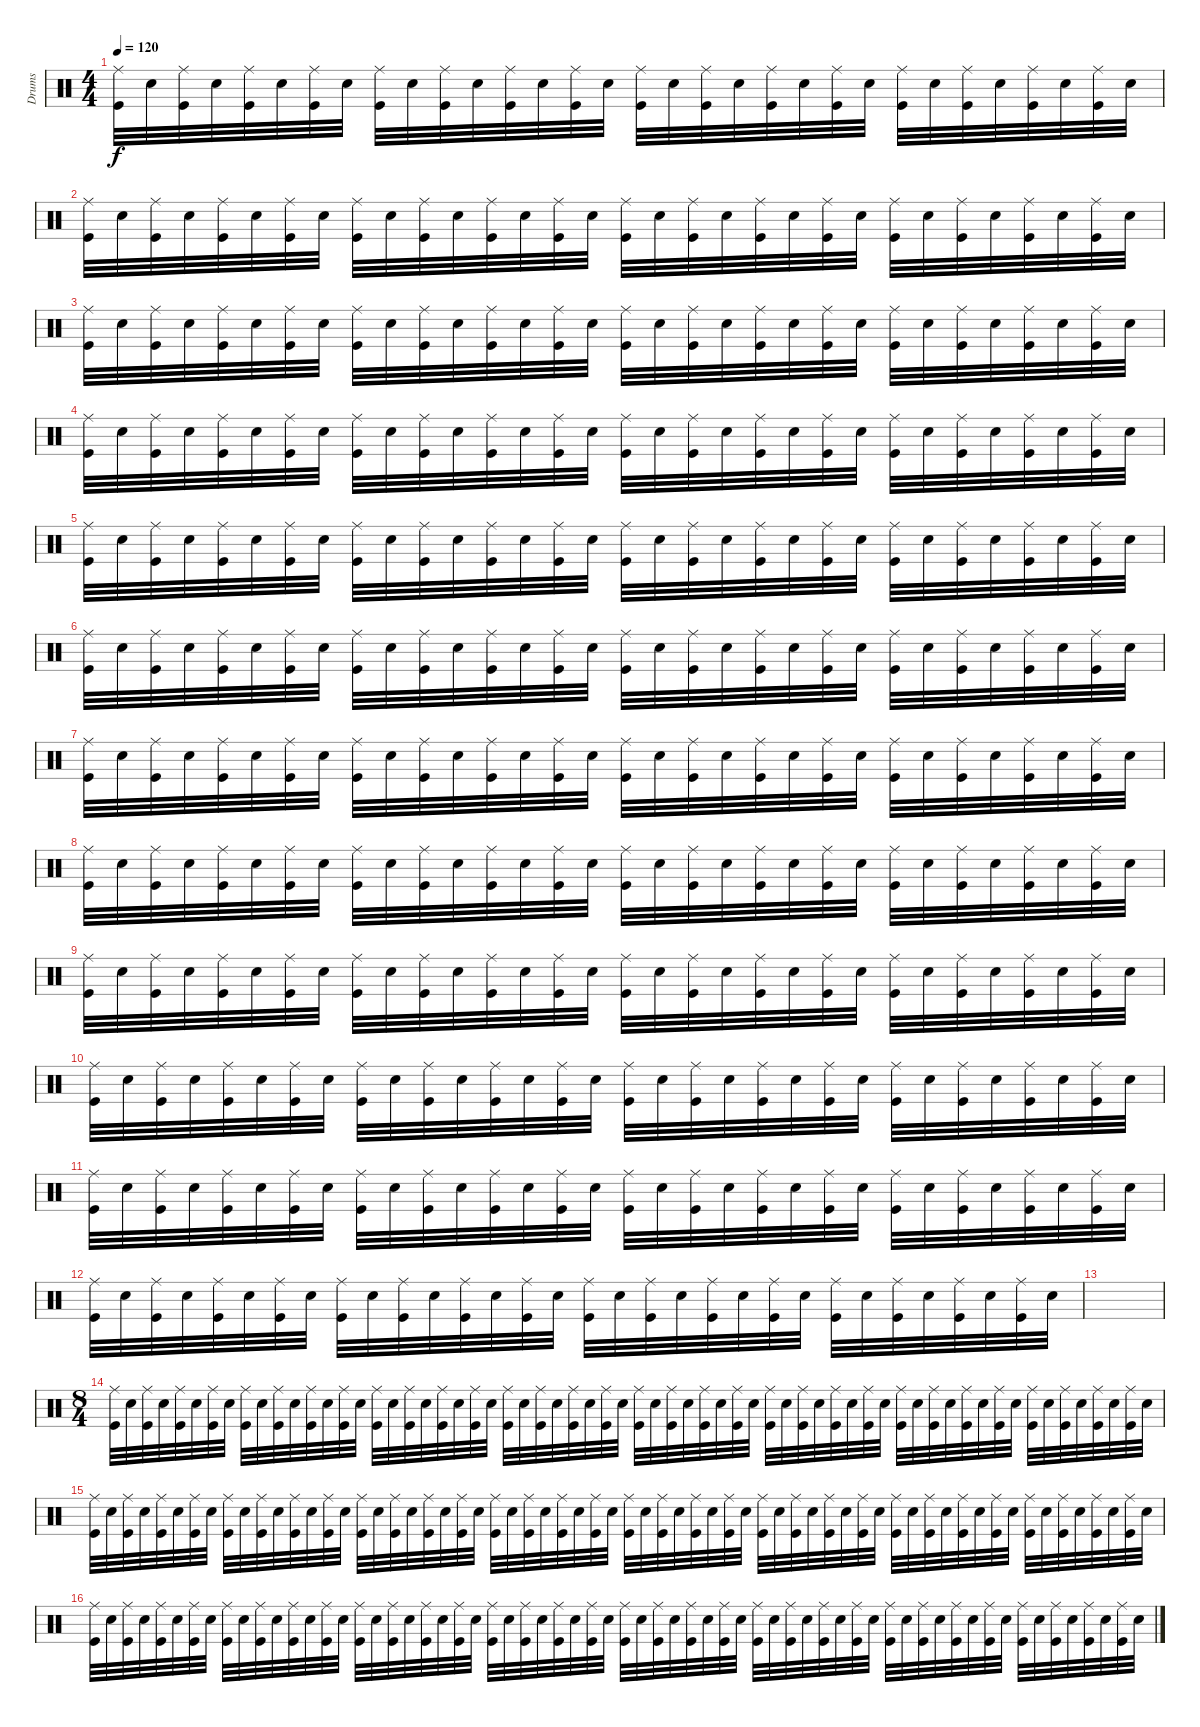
\track ("Drums" "Drums") {instrument percussion}
\staff {score}
\articulation defaults
\ts (4 4)
\tempo 120
\clef neutral
\ks c
("Ride (middle)" "Kick (hit)").32{dy f} "Electric Snare (hit)".32 ("Ride (middle)" "Kick (hit)").32 "Electric Snare (hit)".32 ("Ride (middle)" "Kick (hit)").32 "Electric Snare (hit)".32 ("Ride (middle)" "Kick (hit)").32 "Electric Snare (hit)".32 ("Ride (middle)" "Kick (hit)").32 "Electric Snare (hit)".32 ("Ride (middle)" "Kick (hit)").32 "Electric Snare (hit)".32 ("Ride (middle)" "Kick (hit)").32 "Electric Snare (hit)".32 ("Ride (middle)" "Kick (hit)").32 "Electric Snare (hit)".32 ("Ride (middle)" "Kick (hit)").32 "Electric Snare (hit)".32 ("Ride (middle)" "Kick (hit)").32 "Electric Snare (hit)".32 ("Ride (middle)" "Kick (hit)").32 "Electric Snare (hit)".32 ("Ride (middle)" "Kick (hit)").32 "Electric Snare (hit)".32 ("Ride (middle)" "Kick (hit)").32 "Electric Snare (hit)".32 ("Ride (middle)" "Kick (hit)").32 "Electric Snare (hit)".32 ("Ride (middle)" "Kick (hit)").32 "Electric Snare (hit)".32 ("Ride (middle)" "Kick (hit)").32 "Electric Snare (hit)".32 |
("Ride (middle)" "Kick (hit)").32 "Electric Snare (hit)".32 ("Ride (middle)" "Kick (hit)").32 "Electric Snare (hit)".32 ("Ride (middle)" "Kick (hit)").32 "Electric Snare (hit)".32 ("Ride (middle)" "Kick (hit)").32 "Electric Snare (hit)".32 ("Ride (middle)" "Kick (hit)").32 "Electric Snare (hit)".32 ("Ride (middle)" "Kick (hit)").32 "Electric Snare (hit)".32 ("Ride (middle)" "Kick (hit)").32 "Electric Snare (hit)".32 ("Ride (middle)" "Kick (hit)").32 "Electric Snare (hit)".32 ("Ride (middle)" "Kick (hit)").32 "Electric Snare (hit)".32 ("Ride (middle)" "Kick (hit)").32 "Electric Snare (hit)".32 ("Ride (middle)" "Kick (hit)").32 "Electric Snare (hit)".32 ("Ride (middle)" "Kick (hit)").32 "Electric Snare (hit)".32 ("Ride (middle)" "Kick (hit)").32 "Electric Snare (hit)".32 ("Ride (middle)" "Kick (hit)").32 "Electric Snare (hit)".32 ("Ride (middle)" "Kick (hit)").32 "Electric Snare (hit)".32 ("Ride (middle)" "Kick (hit)").32 "Electric Snare (hit)".32 |
("Ride (middle)" "Kick (hit)").32 "Electric Snare (hit)".32 ("Ride (middle)" "Kick (hit)").32 "Electric Snare (hit)".32 ("Ride (middle)" "Kick (hit)").32 "Electric Snare (hit)".32 ("Ride (middle)" "Kick (hit)").32 "Electric Snare (hit)".32 ("Ride (middle)" "Kick (hit)").32 "Electric Snare (hit)".32 ("Ride (middle)" "Kick (hit)").32 "Electric Snare (hit)".32 ("Ride (middle)" "Kick (hit)").32 "Electric Snare (hit)".32 ("Ride (middle)" "Kick (hit)").32 "Electric Snare (hit)".32 ("Ride (middle)" "Kick (hit)").32 "Electric Snare (hit)".32 ("Ride (middle)" "Kick (hit)").32 "Electric Snare (hit)".32 ("Ride (middle)" "Kick (hit)").32 "Electric Snare (hit)".32 ("Ride (middle)" "Kick (hit)").32 "Electric Snare (hit)".32 ("Ride (middle)" "Kick (hit)").32 "Electric Snare (hit)".32 ("Ride (middle)" "Kick (hit)").32 "Electric Snare (hit)".32 ("Ride (middle)" "Kick (hit)").32 "Electric Snare (hit)".32 ("Ride (middle)" "Kick (hit)").32 "Electric Snare (hit)".32 |
("Ride (middle)" "Kick (hit)").32 "Electric Snare (hit)".32 ("Ride (middle)" "Kick (hit)").32 "Electric Snare (hit)".32 ("Ride (middle)" "Kick (hit)").32 "Electric Snare (hit)".32 ("Ride (middle)" "Kick (hit)").32 "Electric Snare (hit)".32 ("Ride (middle)" "Kick (hit)").32 "Electric Snare (hit)".32 ("Ride (middle)" "Kick (hit)").32 "Electric Snare (hit)".32 ("Ride (middle)" "Kick (hit)").32 "Electric Snare (hit)".32 ("Ride (middle)" "Kick (hit)").32 "Electric Snare (hit)".32 ("Ride (middle)" "Kick (hit)").32 "Electric Snare (hit)".32 ("Ride (middle)" "Kick (hit)").32 "Electric Snare (hit)".32 ("Ride (middle)" "Kick (hit)").32 "Electric Snare (hit)".32 ("Ride (middle)" "Kick (hit)").32 "Electric Snare (hit)".32 ("Ride (middle)" "Kick (hit)").32 "Electric Snare (hit)".32 ("Ride (middle)" "Kick (hit)").32 "Electric Snare (hit)".32 ("Ride (middle)" "Kick (hit)").32 "Electric Snare (hit)".32 ("Ride (middle)" "Kick (hit)").32 "Electric Snare (hit)".32 |
("Ride (middle)" "Kick (hit)").32 "Electric Snare (hit)".32 ("Ride (middle)" "Kick (hit)").32 "Electric Snare (hit)".32 ("Ride (middle)" "Kick (hit)").32 "Electric Snare (hit)".32 ("Ride (middle)" "Kick (hit)").32 "Electric Snare (hit)".32 ("Ride (middle)" "Kick (hit)").32 "Electric Snare (hit)".32 ("Ride (middle)" "Kick (hit)").32 "Electric Snare (hit)".32 ("Ride (middle)" "Kick (hit)").32 "Electric Snare (hit)".32 ("Ride (middle)" "Kick (hit)").32 "Electric Snare (hit)".32 ("Ride (middle)" "Kick (hit)").32 "Electric Snare (hit)".32 ("Ride (middle)" "Kick (hit)").32 "Electric Snare (hit)".32 ("Ride (middle)" "Kick (hit)").32 "Electric Snare (hit)".32 ("Ride (middle)" "Kick (hit)").32 "Electric Snare (hit)".32 ("Ride (middle)" "Kick (hit)").32 "Electric Snare (hit)".32 ("Ride (middle)" "Kick (hit)").32 "Electric Snare (hit)".32 ("Ride (middle)" "Kick (hit)").32 "Electric Snare (hit)".32 ("Ride (middle)" "Kick (hit)").32 "Electric Snare (hit)".32 |
("Ride (middle)" "Kick (hit)").32 "Electric Snare (hit)".32 ("Ride (middle)" "Kick (hit)").32 "Electric Snare (hit)".32 ("Ride (middle)" "Kick (hit)").32 "Electric Snare (hit)".32 ("Ride (middle)" "Kick (hit)").32 "Electric Snare (hit)".32 ("Ride (middle)" "Kick (hit)").32 "Electric Snare (hit)".32 ("Ride (middle)" "Kick (hit)").32 "Electric Snare (hit)".32 ("Ride (middle)" "Kick (hit)").32 "Electric Snare (hit)".32 ("Ride (middle)" "Kick (hit)").32 "Electric Snare (hit)".32 ("Ride (middle)" "Kick (hit)").32 "Electric Snare (hit)".32 ("Ride (middle)" "Kick (hit)").32 "Electric Snare (hit)".32 ("Ride (middle)" "Kick (hit)").32 "Electric Snare (hit)".32 ("Ride (middle)" "Kick (hit)").32 "Electric Snare (hit)".32 ("Ride (middle)" "Kick (hit)").32 "Electric Snare (hit)".32 ("Ride (middle)" "Kick (hit)").32 "Electric Snare (hit)".32 ("Ride (middle)" "Kick (hit)").32 "Electric Snare (hit)".32 ("Ride (middle)" "Kick (hit)").32 "Electric Snare (hit)".32 |
("Ride (middle)" "Kick (hit)").32 "Electric Snare (hit)".32 ("Ride (middle)" "Kick (hit)").32 "Electric Snare (hit)".32 ("Ride (middle)" "Kick (hit)").32 "Electric Snare (hit)".32 ("Ride (middle)" "Kick (hit)").32 "Electric Snare (hit)".32 ("Ride (middle)" "Kick (hit)").32 "Electric Snare (hit)".32 ("Ride (middle)" "Kick (hit)").32 "Electric Snare (hit)".32 ("Ride (middle)" "Kick (hit)").32 "Electric Snare (hit)".32 ("Ride (middle)" "Kick (hit)").32 "Electric Snare (hit)".32 ("Ride (middle)" "Kick (hit)").32 "Electric Snare (hit)".32 ("Ride (middle)" "Kick (hit)").32 "Electric Snare (hit)".32 ("Ride (middle)" "Kick (hit)").32 "Electric Snare (hit)".32 ("Ride (middle)" "Kick (hit)").32 "Electric Snare (hit)".32 ("Ride (middle)" "Kick (hit)").32 "Electric Snare (hit)".32 ("Ride (middle)" "Kick (hit)").32 "Electric Snare (hit)".32 ("Ride (middle)" "Kick (hit)").32 "Electric Snare (hit)".32 ("Ride (middle)" "Kick (hit)").32 "Electric Snare (hit)".32 |
("Ride (middle)" "Kick (hit)").32 "Electric Snare (hit)".32 ("Ride (middle)" "Kick (hit)").32 "Electric Snare (hit)".32 ("Ride (middle)" "Kick (hit)").32 "Electric Snare (hit)".32 ("Ride (middle)" "Kick (hit)").32 "Electric Snare (hit)".32 ("Ride (middle)" "Kick (hit)").32 "Electric Snare (hit)".32 ("Ride (middle)" "Kick (hit)").32 "Electric Snare (hit)".32 ("Ride (middle)" "Kick (hit)").32 "Electric Snare (hit)".32 ("Ride (middle)" "Kick (hit)").32 "Electric Snare (hit)".32 ("Ride (middle)" "Kick (hit)").32 "Electric Snare (hit)".32 ("Ride (middle)" "Kick (hit)").32 "Electric Snare (hit)".32 ("Ride (middle)" "Kick (hit)").32 "Electric Snare (hit)".32 ("Ride (middle)" "Kick (hit)").32 "Electric Snare (hit)".32 ("Ride (middle)" "Kick (hit)").32 "Electric Snare (hit)".32 ("Ride (middle)" "Kick (hit)").32 "Electric Snare (hit)".32 ("Ride (middle)" "Kick (hit)").32 "Electric Snare (hit)".32 ("Ride (middle)" "Kick (hit)").32 "Electric Snare (hit)".32 |
("Ride (middle)" "Kick (hit)").32 "Electric Snare (hit)".32 ("Ride (middle)" "Kick (hit)").32 "Electric Snare (hit)".32 ("Ride (middle)" "Kick (hit)").32 "Electric Snare (hit)".32 ("Ride (middle)" "Kick (hit)").32 "Electric Snare (hit)".32 ("Ride (middle)" "Kick (hit)").32 "Electric Snare (hit)".32 ("Ride (middle)" "Kick (hit)").32 "Electric Snare (hit)".32 ("Ride (middle)" "Kick (hit)").32 "Electric Snare (hit)".32 ("Ride (middle)" "Kick (hit)").32 "Electric Snare (hit)".32 ("Ride (middle)" "Kick (hit)").32 "Electric Snare (hit)".32 ("Ride (middle)" "Kick (hit)").32 "Electric Snare (hit)".32 ("Ride (middle)" "Kick (hit)").32 "Electric Snare (hit)".32 ("Ride (middle)" "Kick (hit)").32 "Electric Snare (hit)".32 ("Ride (middle)" "Kick (hit)").32 "Electric Snare (hit)".32 ("Ride (middle)" "Kick (hit)").32 "Electric Snare (hit)".32 ("Ride (middle)" "Kick (hit)").32 "Electric Snare (hit)".32 ("Ride (middle)" "Kick (hit)").32 "Electric Snare (hit)".32 |
("Ride (middle)" "Kick (hit)").32 "Electric Snare (hit)".32 ("Ride (middle)" "Kick (hit)").32 "Electric Snare (hit)".32 ("Ride (middle)" "Kick (hit)").32 "Electric Snare (hit)".32 ("Ride (middle)" "Kick (hit)").32 "Electric Snare (hit)".32 ("Ride (middle)" "Kick (hit)").32 "Electric Snare (hit)".32 ("Ride (middle)" "Kick (hit)").32 "Electric Snare (hit)".32 ("Ride (middle)" "Kick (hit)").32 "Electric Snare (hit)".32 ("Ride (middle)" "Kick (hit)").32 "Electric Snare (hit)".32 ("Ride (middle)" "Kick (hit)").32 "Electric Snare (hit)".32 ("Ride (middle)" "Kick (hit)").32 "Electric Snare (hit)".32 ("Ride (middle)" "Kick (hit)").32 "Electric Snare (hit)".32 ("Ride (middle)" "Kick (hit)").32 "Electric Snare (hit)".32 ("Ride (middle)" "Kick (hit)").32 "Electric Snare (hit)".32 ("Ride (middle)" "Kick (hit)").32 "Electric Snare (hit)".32 ("Ride (middle)" "Kick (hit)").32 "Electric Snare (hit)".32 ("Ride (middle)" "Kick (hit)").32 "Electric Snare (hit)".32 |
("Ride (middle)" "Kick (hit)").32 "Electric Snare (hit)".32 ("Ride (middle)" "Kick (hit)").32 "Electric Snare (hit)".32 ("Ride (middle)" "Kick (hit)").32 "Electric Snare (hit)".32 ("Ride (middle)" "Kick (hit)").32 "Electric Snare (hit)".32 ("Ride (middle)" "Kick (hit)").32 "Electric Snare (hit)".32 ("Ride (middle)" "Kick (hit)").32 "Electric Snare (hit)".32 ("Ride (middle)" "Kick (hit)").32 "Electric Snare (hit)".32 ("Ride (middle)" "Kick (hit)").32 "Electric Snare (hit)".32 ("Ride (middle)" "Kick (hit)").32 "Electric Snare (hit)".32 ("Ride (middle)" "Kick (hit)").32 "Electric Snare (hit)".32 ("Ride (middle)" "Kick (hit)").32 "Electric Snare (hit)".32 ("Ride (middle)" "Kick (hit)").32 "Electric Snare (hit)".32 ("Ride (middle)" "Kick (hit)").32 "Electric Snare (hit)".32 ("Ride (middle)" "Kick (hit)").32 "Electric Snare (hit)".32 ("Ride (middle)" "Kick (hit)").32 "Electric Snare (hit)".32 ("Ride (middle)" "Kick (hit)").32 "Electric Snare (hit)".32 |
("Ride (middle)" "Kick (hit)").32 "Electric Snare (hit)".32 ("Ride (middle)" "Kick (hit)").32 "Electric Snare (hit)".32 ("Ride (middle)" "Kick (hit)").32 "Electric Snare (hit)".32 ("Ride (middle)" "Kick (hit)").32 "Electric Snare (hit)".32 ("Ride (middle)" "Kick (hit)").32 "Electric Snare (hit)".32 ("Ride (middle)" "Kick (hit)").32 "Electric Snare (hit)".32 ("Ride (middle)" "Kick (hit)").32 "Electric Snare (hit)".32 ("Ride (middle)" "Kick (hit)").32 "Electric Snare (hit)".32 ("Ride (middle)" "Kick (hit)").32 "Electric Snare (hit)".32 ("Ride (middle)" "Kick (hit)").32 "Electric Snare (hit)".32 ("Ride (middle)" "Kick (hit)").32 "Electric Snare (hit)".32 ("Ride (middle)" "Kick (hit)").32 "Electric Snare (hit)".32 ("Ride (middle)" "Kick (hit)").32 "Electric Snare (hit)".32 ("Ride (middle)" "Kick (hit)").32 "Electric Snare (hit)".32 ("Ride (middle)" "Kick (hit)").32 "Electric Snare (hit)".32 ("Ride (middle)" "Kick (hit)").32 "Electric Snare (hit)".32 |
|
\ts (8 4)
("Ride (middle)" "Kick (hit)").32 "Electric Snare (hit)".32 ("Ride (middle)" "Kick (hit)").32 "Electric Snare (hit)".32 ("Ride (middle)" "Kick (hit)").32 "Electric Snare (hit)".32 ("Ride (middle)" "Kick (hit)").32 "Electric Snare (hit)".32 ("Ride (middle)" "Kick (hit)").32 "Electric Snare (hit)".32 ("Ride (middle)" "Kick (hit)").32 "Electric Snare (hit)".32 ("Ride (middle)" "Kick (hit)").32 "Electric Snare (hit)".32 ("Ride (middle)" "Kick (hit)").32 "Electric Snare (hit)".32 ("Ride (middle)" "Kick (hit)").32 "Electric Snare (hit)".32 ("Ride (middle)" "Kick (hit)").32 "Electric Snare (hit)".32 ("Ride (middle)" "Kick (hit)").32 "Electric Snare (hit)".32 ("Ride (middle)" "Kick (hit)").32 "Electric Snare (hit)".32 ("Ride (middle)" "Kick (hit)").32 "Electric Snare (hit)".32 ("Ride (middle)" "Kick (hit)").32 "Electric Snare (hit)".32 ("Ride (middle)" "Kick (hit)").32 "Electric Snare (hit)".32 ("Ride (middle)" "Kick (hit)").32 "Electric Snare (hit)".32 ("Ride (middle)" "Kick (hit)").32 "Electric Snare (hit)".32 ("Ride (middle)" "Kick (hit)").32 "Electric Snare (hit)".32 ("Ride (middle)" "Kick (hit)").32 "Electric Snare (hit)".32 ("Ride (middle)" "Kick (hit)").32 "Electric Snare (hit)".32 ("Ride (middle)" "Kick (hit)").32 "Electric Snare (hit)".32 ("Ride (middle)" "Kick (hit)").32 "Electric Snare (hit)".32 ("Ride (middle)" "Kick (hit)").32 "Electric Snare (hit)".32 ("Ride (middle)" "Kick (hit)").32 "Electric Snare (hit)".32 ("Ride (middle)" "Kick (hit)").32 "Electric Snare (hit)".32 ("Ride (middle)" "Kick (hit)").32 "Electric Snare (hit)".32 ("Ride (middle)" "Kick (hit)").32 "Electric Snare (hit)".32 ("Ride (middle)" "Kick (hit)").32 "Electric Snare (hit)".32 ("Ride (middle)" "Kick (hit)").32 "Electric Snare (hit)".32 ("Ride (middle)" "Kick (hit)").32 "Electric Snare (hit)".32 ("Ride (middle)" "Kick (hit)").32 "Electric Snare (hit)".32 ("Ride (middle)" "Kick (hit)").32 "Electric Snare (hit)".32 |
("Ride (middle)" "Kick (hit)").32 "Electric Snare (hit)".32 ("Ride (middle)" "Kick (hit)").32 "Electric Snare (hit)".32 ("Ride (middle)" "Kick (hit)").32 "Electric Snare (hit)".32 ("Ride (middle)" "Kick (hit)").32 "Electric Snare (hit)".32 ("Ride (middle)" "Kick (hit)").32 "Electric Snare (hit)".32 ("Ride (middle)" "Kick (hit)").32 "Electric Snare (hit)".32 ("Ride (middle)" "Kick (hit)").32 "Electric Snare (hit)".32 ("Ride (middle)" "Kick (hit)").32 "Electric Snare (hit)".32 ("Ride (middle)" "Kick (hit)").32 "Electric Snare (hit)".32 ("Ride (middle)" "Kick (hit)").32 "Electric Snare (hit)".32 ("Ride (middle)" "Kick (hit)").32 "Electric Snare (hit)".32 ("Ride (middle)" "Kick (hit)").32 "Electric Snare (hit)".32 ("Ride (middle)" "Kick (hit)").32 "Electric Snare (hit)".32 ("Ride (middle)" "Kick (hit)").32 "Electric Snare (hit)".32 ("Ride (middle)" "Kick (hit)").32 "Electric Snare (hit)".32 ("Ride (middle)" "Kick (hit)").32 "Electric Snare (hit)".32 ("Ride (middle)" "Kick (hit)").32 "Electric Snare (hit)".32 ("Ride (middle)" "Kick (hit)").32 "Electric Snare (hit)".32 ("Ride (middle)" "Kick (hit)").32 "Electric Snare (hit)".32 ("Ride (middle)" "Kick (hit)").32 "Electric Snare (hit)".32 ("Ride (middle)" "Kick (hit)").32 "Electric Snare (hit)".32 ("Ride (middle)" "Kick (hit)").32 "Electric Snare (hit)".32 ("Ride (middle)" "Kick (hit)").32 "Electric Snare (hit)".32 ("Ride (middle)" "Kick (hit)").32 "Electric Snare (hit)".32 ("Ride (middle)" "Kick (hit)").32 "Electric Snare (hit)".32 ("Ride (middle)" "Kick (hit)").32 "Electric Snare (hit)".32 ("Ride (middle)" "Kick (hit)").32 "Electric Snare (hit)".32 ("Ride (middle)" "Kick (hit)").32 "Electric Snare (hit)".32 ("Ride (middle)" "Kick (hit)").32 "Electric Snare (hit)".32 ("Ride (middle)" "Kick (hit)").32 "Electric Snare (hit)".32 ("Ride (middle)" "Kick (hit)").32 "Electric Snare (hit)".32 ("Ride (middle)" "Kick (hit)").32 "Electric Snare (hit)".32 |
("Ride (middle)" "Kick (hit)").32 "Electric Snare (hit)".32 ("Ride (middle)" "Kick (hit)").32 "Electric Snare (hit)".32 ("Ride (middle)" "Kick (hit)").32 "Electric Snare (hit)".32 ("Ride (middle)" "Kick (hit)").32 "Electric Snare (hit)".32 ("Ride (middle)" "Kick (hit)").32 "Electric Snare (hit)".32 ("Ride (middle)" "Kick (hit)").32 "Electric Snare (hit)".32 ("Ride (middle)" "Kick (hit)").32 "Electric Snare (hit)".32 ("Ride (middle)" "Kick (hit)").32 "Electric Snare (hit)".32 ("Ride (middle)" "Kick (hit)").32 "Electric Snare (hit)".32 ("Ride (middle)" "Kick (hit)").32 "Electric Snare (hit)".32 ("Ride (middle)" "Kick (hit)").32 "Electric Snare (hit)".32 ("Ride (middle)" "Kick (hit)").32 "Electric Snare (hit)".32 ("Ride (middle)" "Kick (hit)").32 "Electric Snare (hit)".32 ("Ride (middle)" "Kick (hit)").32 "Electric Snare (hit)".32 ("Ride (middle)" "Kick (hit)").32 "Electric Snare (hit)".32 ("Ride (middle)" "Kick (hit)").32 "Electric Snare (hit)".32 ("Ride (middle)" "Kick (hit)").32 "Electric Snare (hit)".32 ("Ride (middle)" "Kick (hit)").32 "Electric Snare (hit)".32 ("Ride (middle)" "Kick (hit)").32 "Electric Snare (hit)".32 ("Ride (middle)" "Kick (hit)").32 "Electric Snare (hit)".32 ("Ride (middle)" "Kick (hit)").32 "Electric Snare (hit)".32 ("Ride (middle)" "Kick (hit)").32 "Electric Snare (hit)".32 ("Ride (middle)" "Kick (hit)").32 "Electric Snare (hit)".32 ("Ride (middle)" "Kick (hit)").32 "Electric Snare (hit)".32 ("Ride (middle)" "Kick (hit)").32 "Electric Snare (hit)".32 ("Ride (middle)" "Kick (hit)").32 "Electric Snare (hit)".32 ("Ride (middle)" "Kick (hit)").32 "Electric Snare (hit)".32 ("Ride (middle)" "Kick (hit)").32 "Electric Snare (hit)".32 ("Ride (middle)" "Kick (hit)").32 "Electric Snare (hit)".32 ("Ride (middle)" "Kick (hit)").32 "Electric Snare (hit)".32 ("Ride (middle)" "Kick (hit)").32 "Electric Snare (hit)".32 ("Ride (middle)" "Kick (hit)").32 "Electric Snare (hit)".32
